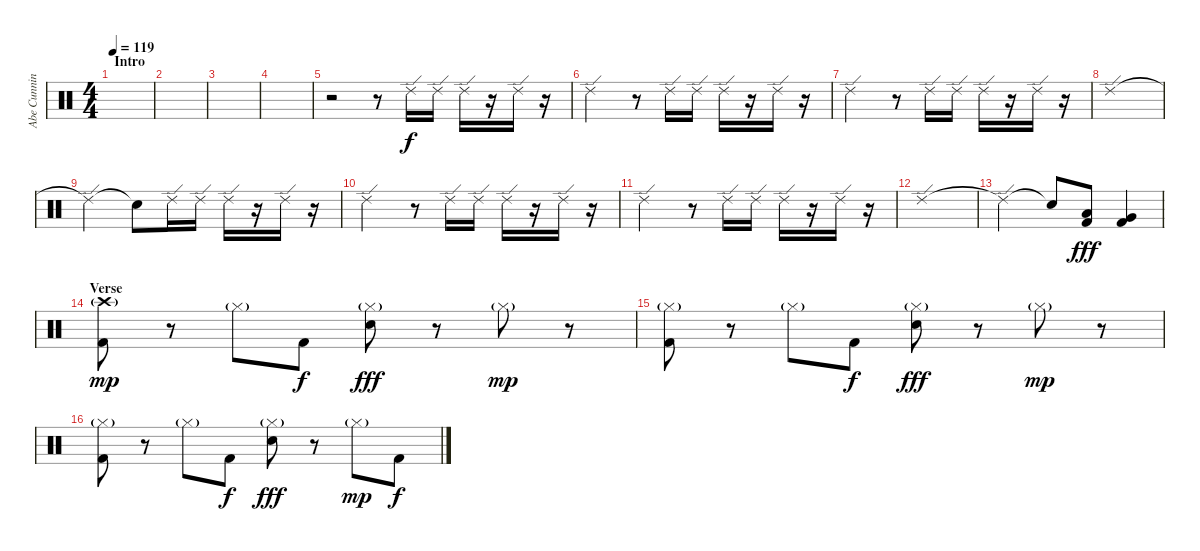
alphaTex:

\track ("Abe Cunningham" "Abe Cunnin") {instrument percussion}
\staff {score}
\articulation defaults
\ts (4 4)
\section ("" "Intro")
\tempo 119
\clef neutral
\ks c
|
|
|
|
r.2 r.8 "Ride (edge) 2".16 "Ride (edge) 2".16 "Ride (edge) 2".16 r.16 "Ride (edge) 2".16 r.16 |
"Ride (edge) 2".2 r.8 "Ride (edge) 2".16 "Ride (edge) 2".16 "Ride (edge) 2".16 r.16 "Ride (edge) 2".16 r.16 |
"Ride (edge) 2".2 r.8 "Ride (edge) 2".16 "Ride (edge) 2".16 "Ride (edge) 2".16 r.16 "Ride (edge) 2".16 r.16 |
"Ride (edge) 2".1 |
"Ride (edge) 2"{t}.2 "Snare (hit)"{t}.8 "Ride (edge) 2".16 "Ride (edge) 2".16 "Ride (edge) 2".16 r.16 "Ride (edge) 2".16 r.16 |
"Ride (edge) 2".2 r.8 "Ride (edge) 2".16 "Ride (edge) 2".16 "Ride (edge) 2".16 r.16 "Ride (edge) 2".16 r.16 |
"Ride (edge) 2".2 r.8 "Ride (edge) 2".16 "Ride (edge) 2".16 "Ride (edge) 2".16 r.16 "Ride (edge) 2".16 r.16 |
"Ride (edge) 2".1 |
"Ride (edge) 2"{t}.2 "Snare (hit)"{t}.8{volume 16} ("Low Tom (hit)" "Kick (hit) 2").8{dy fff} ("Very Low Tom (hit)" "Kick (hit) 2").4 |
\section ("" "Verse")
("Crash high (hit)"{g} "Kick (hit) 2").8{dy mp volume 10} r.8 "Hi-Hat (closed)"{g}.8 "Kick (hit) 2".8{dy f} ("Hi-Hat (closed)"{g} "Snare (hit) 2").8{dy fff} r.8 "Hi-Hat (closed)"{g}.8{dy mp} r.8 |
("Hi-Hat (closed)"{g} "Kick (hit) 2").8 r.8 "Hi-Hat (closed)"{g}.8 "Kick (hit) 2".8{dy f} ("Hi-Hat (closed)"{g} "Snare (hit) 2").8{dy fff} r.8 "Hi-Hat (closed)"{g}.8{dy mp} r.8 |
("Hi-Hat (closed)"{g} "Kick (hit) 2").8 r.8 "Hi-Hat (closed)"{g}.8 "Kick (hit) 2".8{dy f} ("Hi-Hat (closed)"{g} "Snare (hit) 2").8{dy fff} r.8 "Hi-Hat (closed)"{g}.8{dy mp} "Kick (hit) 2".8{dy f}
